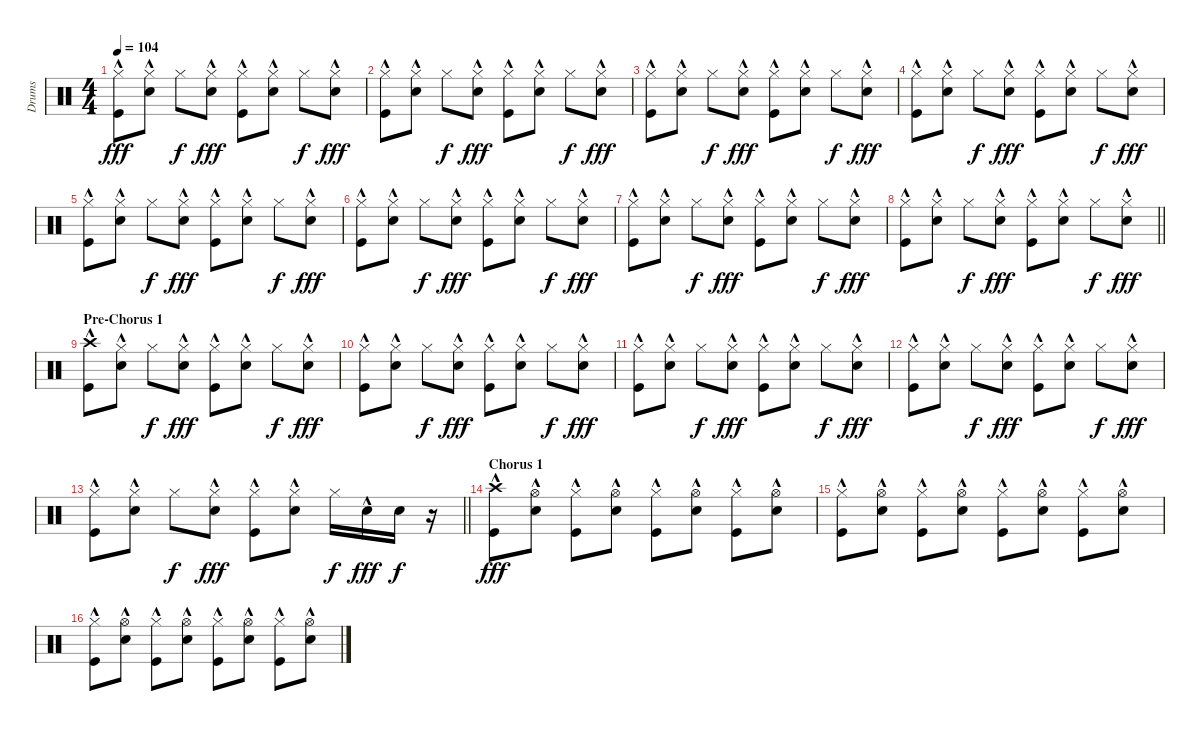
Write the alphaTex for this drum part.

\track ("Drums" "Drums") {instrument percussion}
\staff {score}
\articulation defaults
\ts (4 4)
\tempo 104
\clef neutral
\ks c
("Hi-Hat (closed)" "Kick (hit)"{hac}).8{dy fff} ("Hi-Hat (closed)" "Snare (hit) 2"{hac}).8 "Hi-Hat (closed)".8{dy f} ("Hi-Hat (closed)" "Snare (hit) 2"{hac}).8{dy fff} ("Hi-Hat (closed)" "Kick (hit)"{hac}).8 ("Hi-Hat (closed)" "Snare (hit) 2"{hac}).8 "Hi-Hat (closed)".8{dy f} ("Hi-Hat (closed)" "Snare (hit) 2"{hac}).8{dy fff} |
("Hi-Hat (closed)" "Kick (hit)"{hac}).8 ("Hi-Hat (closed)" "Snare (hit) 2"{hac}).8 "Hi-Hat (closed)".8{dy f} ("Hi-Hat (closed)" "Snare (hit) 2"{hac}).8{dy fff} ("Hi-Hat (closed)" "Kick (hit)"{hac}).8 ("Hi-Hat (closed)" "Snare (hit) 2"{hac}).8 "Hi-Hat (closed)".8{dy f} ("Hi-Hat (closed)" "Snare (hit) 2"{hac}).8{dy fff} |
("Hi-Hat (closed)" "Kick (hit)"{hac}).8 ("Hi-Hat (closed)" "Snare (hit) 2"{hac}).8 "Hi-Hat (closed)".8{dy f} ("Hi-Hat (closed)" "Snare (hit) 2"{hac}).8{dy fff} ("Hi-Hat (closed)" "Kick (hit)"{hac}).8 ("Hi-Hat (closed)" "Snare (hit) 2"{hac}).8 "Hi-Hat (closed)".8{dy f} ("Hi-Hat (closed)" "Snare (hit) 2"{hac}).8{dy fff} |
("Hi-Hat (closed)" "Kick (hit)"{hac}).8 ("Hi-Hat (closed)" "Snare (hit) 2"{hac}).8 "Hi-Hat (closed)".8{dy f} ("Hi-Hat (closed)" "Snare (hit) 2"{hac}).8{dy fff} ("Hi-Hat (closed)" "Kick (hit)"{hac}).8 ("Hi-Hat (closed)" "Snare (hit) 2"{hac}).8 "Hi-Hat (closed)".8{dy f} ("Hi-Hat (closed)" "Snare (hit) 2"{hac}).8{dy fff} |
("Hi-Hat (closed)" "Kick (hit)"{hac}).8 ("Hi-Hat (closed)" "Snare (hit) 2"{hac}).8 "Hi-Hat (closed)".8{dy f} ("Hi-Hat (closed)" "Snare (hit) 2"{hac}).8{dy fff} ("Hi-Hat (closed)" "Kick (hit)"{hac}).8 ("Hi-Hat (closed)" "Snare (hit) 2"{hac}).8 "Hi-Hat (closed)".8{dy f} ("Hi-Hat (closed)" "Snare (hit) 2"{hac}).8{dy fff} |
("Hi-Hat (closed)" "Kick (hit)"{hac}).8 ("Hi-Hat (closed)" "Snare (hit) 2"{hac}).8 "Hi-Hat (closed)".8{dy f} ("Hi-Hat (closed)" "Snare (hit) 2"{hac}).8{dy fff} ("Hi-Hat (closed)" "Kick (hit)"{hac}).8 ("Hi-Hat (closed)" "Snare (hit) 2"{hac}).8 "Hi-Hat (closed)".8{dy f} ("Hi-Hat (closed)" "Snare (hit) 2"{hac}).8{dy fff} |
("Hi-Hat (closed)" "Kick (hit)"{hac}).8 ("Hi-Hat (closed)" "Snare (hit) 2"{hac}).8 "Hi-Hat (closed)".8{dy f} ("Hi-Hat (closed)" "Snare (hit) 2"{hac}).8{dy fff} ("Hi-Hat (closed)" "Kick (hit)"{hac}).8 ("Hi-Hat (closed)" "Snare (hit) 2"{hac}).8 "Hi-Hat (closed)".8{dy f} ("Hi-Hat (closed)" "Snare (hit) 2"{hac}).8{dy fff} |
\barLineRight lightlight
("Hi-Hat (closed)" "Kick (hit)"{hac}).8 ("Hi-Hat (closed)" "Snare (hit) 2"{hac}).8 "Hi-Hat (closed)".8{dy f} ("Hi-Hat (closed)" "Snare (hit) 2"{hac}).8{dy fff} ("Hi-Hat (closed)" "Kick (hit)"{hac}).8 ("Hi-Hat (closed)" "Snare (hit) 2"{hac}).8 "Hi-Hat (closed)".8{dy f} ("Hi-Hat (closed)" "Snare (hit) 2"{hac}).8{dy fff} |
\section ("" "Pre-Chorus 1")
("Crash high (hit)" "Kick (hit)"{hac}).8 ("Hi-Hat (closed)" "Snare (hit) 2"{hac}).8 "Hi-Hat (closed)".8{dy f} ("Hi-Hat (closed)" "Snare (hit) 2"{hac}).8{dy fff} ("Hi-Hat (closed)" "Kick (hit)"{hac}).8 ("Hi-Hat (closed)" "Snare (hit) 2"{hac}).8 "Hi-Hat (closed)".8{dy f} ("Hi-Hat (closed)" "Snare (hit) 2"{hac}).8{dy fff} |
("Hi-Hat (closed)" "Kick (hit)"{hac}).8 ("Hi-Hat (closed)" "Snare (hit) 2"{hac}).8 "Hi-Hat (closed)".8{dy f} ("Hi-Hat (closed)" "Snare (hit) 2"{hac}).8{dy fff} ("Hi-Hat (closed)" "Kick (hit)"{hac}).8 ("Hi-Hat (closed)" "Snare (hit) 2"{hac}).8 "Hi-Hat (closed)".8{dy f} ("Hi-Hat (closed)" "Snare (hit) 2"{hac}).8{dy fff} |
("Hi-Hat (closed)" "Kick (hit)"{hac}).8 ("Hi-Hat (closed)" "Snare (hit) 2"{hac}).8 "Hi-Hat (closed)".8{dy f} ("Hi-Hat (closed)" "Snare (hit) 2"{hac}).8{dy fff} ("Hi-Hat (closed)" "Kick (hit)"{hac}).8 ("Hi-Hat (closed)" "Snare (hit) 2"{hac}).8 "Hi-Hat (closed)".8{dy f} ("Hi-Hat (closed)" "Snare (hit) 2"{hac}).8{dy fff} |
("Hi-Hat (closed)" "Kick (hit)"{hac}).8 ("Hi-Hat (closed)" "Snare (hit) 2"{hac}).8 "Hi-Hat (closed)".8{dy f} ("Hi-Hat (closed)" "Snare (hit) 2"{hac}).8{dy fff} ("Hi-Hat (closed)" "Kick (hit)"{hac}).8 ("Hi-Hat (closed)" "Snare (hit) 2"{hac}).8 "Hi-Hat (closed)".8{dy f} ("Hi-Hat (closed)" "Snare (hit) 2"{hac}).8{dy fff} |
\barLineRight lightlight
("Hi-Hat (closed)" "Kick (hit)"{hac}).8 ("Hi-Hat (closed)" "Snare (hit) 2"{hac}).8 "Hi-Hat (closed)".8{dy f} ("Hi-Hat (closed)" "Snare (hit) 2"{hac}).8{dy fff} ("Hi-Hat (closed)" "Kick (hit)"{hac}).8 ("Hi-Hat (closed)" "Snare (hit) 2"{hac}).8 "Hi-Hat (closed)".16{dy f} "Snare (hit) 2"{hac}.16{dy fff} "Snare (hit) 2".16{dy f} r.16 |
\section ("" "Chorus 1")
("Crash high (hit)" "Kick (hit)"{hac}).8{dy fff} ("Hi-Hat (open)" "Snare (hit) 2"{hac}).8 ("Hi-Hat (closed)" "Kick (hit)"{hac}).8 ("Hi-Hat (open)" "Snare (hit) 2"{hac}).8 ("Hi-Hat (closed)" "Kick (hit)"{hac}).8 ("Hi-Hat (open)" "Snare (hit) 2"{hac}).8 ("Hi-Hat (closed)" "Kick (hit)"{hac}).8 ("Hi-Hat (open)" "Snare (hit) 2"{hac}).8 |
("Hi-Hat (closed)" "Kick (hit)"{hac}).8 ("Hi-Hat (open)" "Snare (hit) 2"{hac}).8 ("Hi-Hat (closed)" "Kick (hit)"{hac}).8 ("Hi-Hat (open)" "Snare (hit) 2"{hac}).8 ("Hi-Hat (closed)" "Kick (hit)"{hac}).8 ("Hi-Hat (open)" "Snare (hit) 2"{hac}).8 ("Hi-Hat (closed)" "Kick (hit)"{hac}).8 ("Hi-Hat (open)" "Snare (hit) 2"{hac}).8 |
("Hi-Hat (closed)" "Kick (hit)"{hac}).8 ("Hi-Hat (open)" "Snare (hit) 2"{hac}).8 ("Hi-Hat (closed)" "Kick (hit)"{hac}).8 ("Hi-Hat (open)" "Snare (hit) 2"{hac}).8 ("Hi-Hat (closed)" "Kick (hit)"{hac}).8 ("Hi-Hat (open)" "Snare (hit) 2"{hac}).8 ("Hi-Hat (closed)" "Kick (hit)"{hac}).8 ("Hi-Hat (open)" "Snare (hit) 2"{hac}).8
